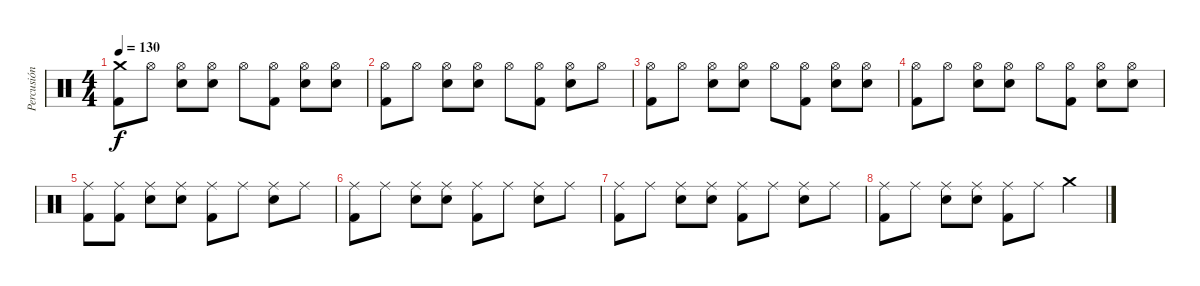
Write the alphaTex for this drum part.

\track ("Percusión" "Percusión") {instrument percussion}
\staff {score}
\articulation defaults
\ts (4 4)
\tempo 130
\clef neutral
\ks c
("Crash medium (hit)" "Kick (hit) 2").8{dy f} "Hi-Hat (open)".8 ("Hi-Hat (open)" "Electric Snare (hit)").8 ("Hi-Hat (open)" "Electric Snare (hit)").8 "Hi-Hat (open)".8 ("Hi-Hat (open)" "Kick (hit) 2").8 ("Hi-Hat (open)" "Electric Snare (hit)").8 ("Hi-Hat (open)" "Electric Snare (hit)").8 |
("Hi-Hat (open)" "Kick (hit) 2").8 "Hi-Hat (open)".8 ("Hi-Hat (open)" "Electric Snare (hit)").8 ("Hi-Hat (open)" "Electric Snare (hit)").8 "Hi-Hat (open)".8 ("Hi-Hat (open)" "Kick (hit) 2").8 ("Hi-Hat (open)" "Electric Snare (hit)").8 "Hi-Hat (open)".8 |
("Hi-Hat (open)" "Kick (hit) 2").8 "Hi-Hat (open)".8 ("Hi-Hat (open)" "Electric Snare (hit)").8 ("Hi-Hat (open)" "Electric Snare (hit)").8 "Hi-Hat (open)".8 ("Hi-Hat (open)" "Kick (hit) 2").8 ("Hi-Hat (open)" "Electric Snare (hit)").8 ("Hi-Hat (open)" "Electric Snare (hit)").8 |
("Hi-Hat (open)" "Kick (hit) 2").8 "Hi-Hat (open)".8 ("Hi-Hat (open)" "Electric Snare (hit)").8 ("Hi-Hat (open)" "Electric Snare (hit)").8 "Hi-Hat (open)".8 ("Hi-Hat (open)" "Kick (hit) 2").8 ("Hi-Hat (open)" "Electric Snare (hit)").8 ("Hi-Hat (open)" "Electric Snare (hit)").8 |
("Ride (middle)" "Kick (hit) 2").8 ("Ride (middle)" "Kick (hit) 2").8 ("Ride (middle)" "Electric Snare (hit)").8 ("Ride (middle)" "Electric Snare (hit)").8 ("Ride (middle)" "Kick (hit) 2").8 "Ride (middle)".8 ("Ride (middle)" "Electric Snare (hit)").8 "Ride (middle)".8 |
("Ride (middle)" "Kick (hit) 2").8 "Ride (middle)".8 ("Ride (middle)" "Electric Snare (hit)").8 ("Ride (middle)" "Electric Snare (hit)").8 ("Ride (middle)" "Kick (hit) 2").8 "Ride (middle)".8 ("Ride (middle)" "Electric Snare (hit)").8 "Ride (middle)".8 |
("Ride (middle)" "Kick (hit) 2").8 "Ride (middle)".8 ("Ride (middle)" "Electric Snare (hit)").8 ("Ride (middle)" "Electric Snare (hit)").8 ("Ride (middle)" "Kick (hit) 2").8 "Ride (middle)".8 ("Ride (middle)" "Electric Snare (hit)").8 "Ride (middle)".8 |
("Ride (middle)" "Kick (hit) 2").8 "Ride (middle)".8 ("Ride (middle)" "Electric Snare (hit)").8 ("Ride (middle)" "Electric Snare (hit)").8 ("Ride (middle)" "Kick (hit) 2").8 "Ride (middle)".8 "Crash medium (hit)".4
